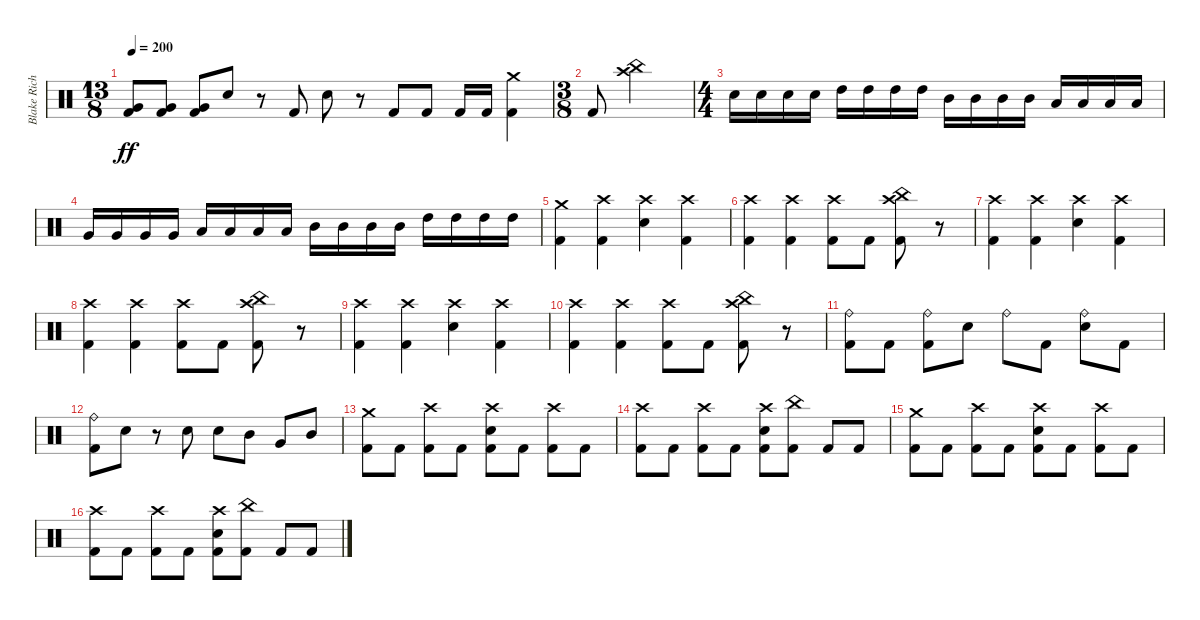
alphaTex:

\track ("Blake Richardson" "Blake Rich") {instrument percussion}
\staff {score}
\articulation defaults
\ts (13 8)
\tempo 200
\clef neutral
\ks c
("Very Low Tom (hit)" "Kick (hit) 2").8{dy ff} ("Very Low Tom (hit)" "Kick (hit) 2").8 ("Very Low Tom (hit)" "Kick (hit) 2").8 "Electric Snare (hit)".8 r.8 "Kick (hit) 2".8 "Electric Snare (hit)".8 r.8 "Kick (hit) 2".8 "Kick (hit) 2".8 "Kick (hit) 2".16 "Kick (hit) 2".16 ("Crash medium (hit)" "Kick (hit) 2").4 |
\ts (3 8)
"Kick (hit) 2".8 ("China (hit)" "Crash high (hit)").4 |
\ts (4 4)
"Electric Snare (hit)".16 "Electric Snare (hit)".16 "Electric Snare (hit)".16 "Electric Snare (hit)".16 "High Tom (hit)".16 "High Tom (hit)".16 "High Tom (hit)".16 "High Tom (hit)".16 "Mid Tom (hit)".16 "Mid Tom (hit)".16 "Mid Tom (hit)".16 "Mid Tom (hit)".16 "Low Tom (hit)".16 "Low Tom (hit)".16 "Low Tom (hit)".16 "Low Tom (hit)".16 |
"Very Low Tom (hit)".16 "Very Low Tom (hit)".16 "Very Low Tom (hit)".16 "Very Low Tom (hit)".16 "Low Tom (hit)".16 "Low Tom (hit)".16 "Low Tom (hit)".16 "Low Tom (hit)".16 "Mid Tom (hit)".16 "Mid Tom (hit)".16 "Mid Tom (hit)".16 "Mid Tom (hit)".16 "High Tom (hit)".16 "High Tom (hit)".16 "High Tom (hit)".16 "High Tom (hit)".16 |
("Crash medium (hit)" "Kick (hit) 2").4 ("Crash high (hit)" "Kick (hit) 2").4 ("Crash high (hit)" "Electric Snare (hit)").4 ("Crash high (hit)" "Kick (hit) 2").4 |
("Crash high (hit)" "Kick (hit) 2").4 ("Crash high (hit)" "Kick (hit) 2").4 ("Crash high (hit)" "Kick (hit) 2").8 "Kick (hit) 2".8 ("China (hit)" "Crash high (hit)" "Kick (hit) 2").8 r.8 |
("Crash high (hit)" "Kick (hit) 2").4 ("Crash high (hit)" "Kick (hit) 2").4 ("Crash high (hit)" "Electric Snare (hit)").4 ("Crash high (hit)" "Kick (hit) 2").4 |
("Crash high (hit)" "Kick (hit) 2").4 ("Crash high (hit)" "Kick (hit) 2").4 ("Crash high (hit)" "Kick (hit) 2").8 "Kick (hit) 2".8 ("China (hit)" "Crash high (hit)" "Kick (hit) 2").8 r.8 |
("Crash high (hit)" "Kick (hit) 2").4 ("Crash high (hit)" "Kick (hit) 2").4 ("Crash high (hit)" "Electric Snare (hit)").4 ("Crash high (hit)" "Kick (hit) 2").4 |
("Crash high (hit)" "Kick (hit) 2").4 ("Crash high (hit)" "Kick (hit) 2").4 ("Crash high (hit)" "Kick (hit) 2").8 "Kick (hit) 2".8 ("China (hit)" "Crash high (hit)" "Kick (hit) 2").8 r.8 |
("Ride (bell)" "Kick (hit) 2").8 "Kick (hit) 2".8 ("Ride (bell)" "Kick (hit) 2").8 "Electric Snare (hit)".8 "Ride (bell)".8 "Kick (hit) 2".8 ("Ride (bell)" "Electric Snare (hit)").8 "Kick (hit) 2".8 |
("Ride (bell)" "Kick (hit) 2").8 "Electric Snare (hit)".8 r.8 "Electric Snare (hit)".8 "Electric Snare (hit)".8 "Mid Tom (hit)".8 "Very Low Tom (hit)".8 "Mid Tom (hit)".8 |
("Crash medium (hit)" "Kick (hit) 2").8 "Kick (hit) 2".8 ("Crash high (hit)" "Kick (hit) 2").8 "Kick (hit) 2".8 ("Crash high (hit)" "Electric Snare (hit)" "Kick (hit) 2").8 "Kick (hit) 2".8 ("Crash high (hit)" "Kick (hit) 2").8 "Kick (hit) 2".8 |
("Crash high (hit)" "Kick (hit) 2").8 "Kick (hit) 2".8 ("Crash high (hit)" "Kick (hit) 2").8 "Kick (hit) 2".8 ("Crash high (hit)" "Electric Snare (hit)" "Kick (hit) 2").8 ("China (hit)" "Kick (hit) 2").8 "Kick (hit) 2".8 "Kick (hit) 2".8 |
("Crash medium (hit)" "Kick (hit) 2").8 "Kick (hit) 2".8 ("Crash high (hit)" "Kick (hit) 2").8 "Kick (hit) 2".8 ("Crash high (hit)" "Electric Snare (hit)" "Kick (hit) 2").8 "Kick (hit) 2".8 ("Crash high (hit)" "Kick (hit) 2").8 "Kick (hit) 2".8 |
("Crash high (hit)" "Kick (hit) 2").8 "Kick (hit) 2".8 ("Crash high (hit)" "Kick (hit) 2").8 "Kick (hit) 2".8 ("Crash high (hit)" "Electric Snare (hit)" "Kick (hit) 2").8 ("China (hit)" "Kick (hit) 2").8 "Kick (hit) 2".8 "Kick (hit) 2".8
